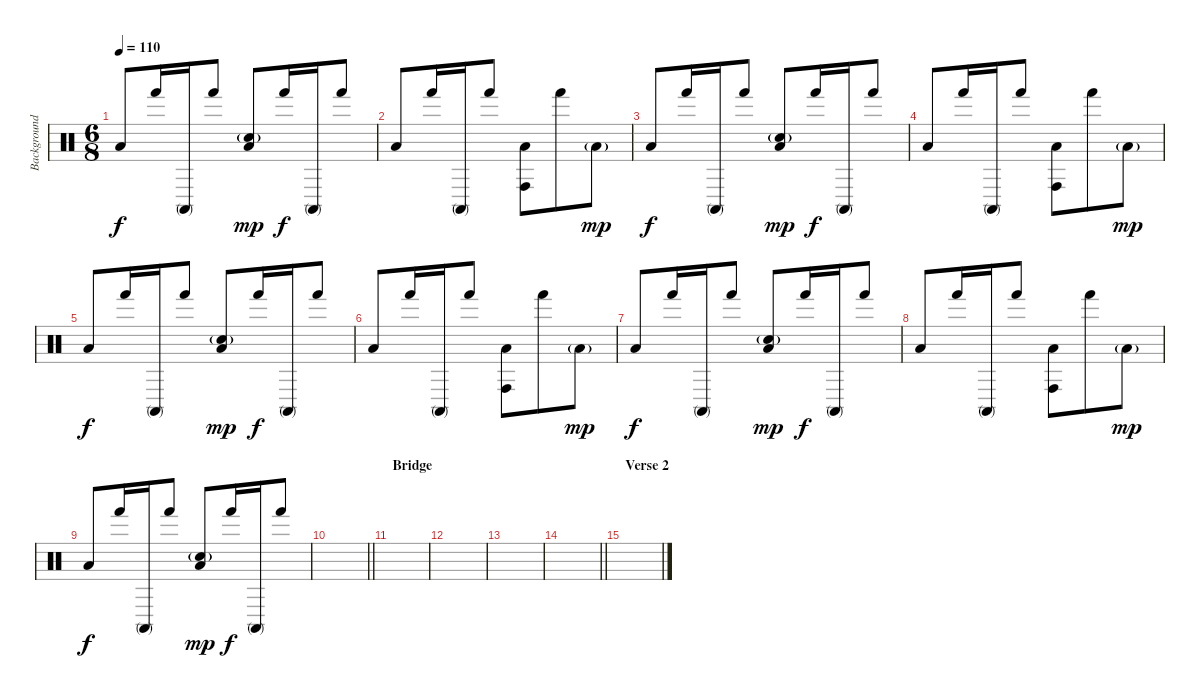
\track ("Background Percussion" "Background") {instrument percussion}
\staff {score}
\articulation defaults
\ts (6 8)
\tempo 110
\clef neutral
\ks c "Low Tom (hit)".8{dy f} "Hand (hit)".16 "Conga high (mute)".16 "Hand (hit)".8
("Snare (hit) 2"{g} "Low Tom (hit)").8{dy mp} "Hand (hit)".16{dy f} "Conga high (mute)".16 "Hand (hit)".8 |
"Low Tom (hit)".8 "Hand (hit)".16 "Conga high (mute)".16 "Hand (hit)".8 ("Conga high (hit)" "Low Tom (hit)").8 "Hand (hit)".8 "Low Tom (hit)"{g}.8{dy mp} |
"Low Tom (hit)".8{dy f} "Hand (hit)".16 "Conga high (mute)".16 "Hand (hit)".8 ("Snare (hit) 2"{g} "Low Tom (hit)").8{dy mp} "Hand (hit)".16{dy f} "Conga high (mute)".16 "Hand (hit)".8 |
"Low Tom (hit)".8 "Hand (hit)".16 "Conga high (mute)".16 "Hand (hit)".8 ("Conga high (hit)" "Low Tom (hit)").8 "Hand (hit)".8 "Low Tom (hit)"{g}.8{dy mp} |
"Low Tom (hit)".8{dy f} "Hand (hit)".16 "Conga high (mute)".16 "Hand (hit)".8 ("Snare (hit) 2"{g} "Low Tom (hit)").8{dy mp} "Hand (hit)".16{dy f} "Conga high (mute)".16 "Hand (hit)".8 |
"Low Tom (hit)".8 "Hand (hit)".16 "Conga high (mute)".16 "Hand (hit)".8 ("Conga high (hit)" "Low Tom (hit)").8 "Hand (hit)".8 "Low Tom (hit)"{g}.8{dy mp} |
"Low Tom (hit)".8{dy f} "Hand (hit)".16 "Conga high (mute)".16 "Hand (hit)".8 ("Snare (hit) 2"{g} "Low Tom (hit)").8{dy mp} "Hand (hit)".16{dy f} "Conga high (mute)".16 "Hand (hit)".8 |
"Low Tom (hit)".8 "Hand (hit)".16 "Conga high (mute)".16 "Hand (hit)".8 ("Conga high (hit)" "Low Tom (hit)").8 "Hand (hit)".8 "Low Tom (hit)"{g}.8{dy mp} |
"Low Tom (hit)".8{dy f} "Hand (hit)".16 "Conga high (mute)".16 "Hand (hit)".8 ("Snare (hit) 2"{g} "Low Tom (hit)").8{dy mp} "Hand (hit)".16{dy f} "Conga high (mute)".16 "Hand (hit)".8 |
\barLineRight lightlight
|
\section ("" "Bridge")
|
|
|
\barLineRight lightlight
|
\section ("" "Verse 2")
